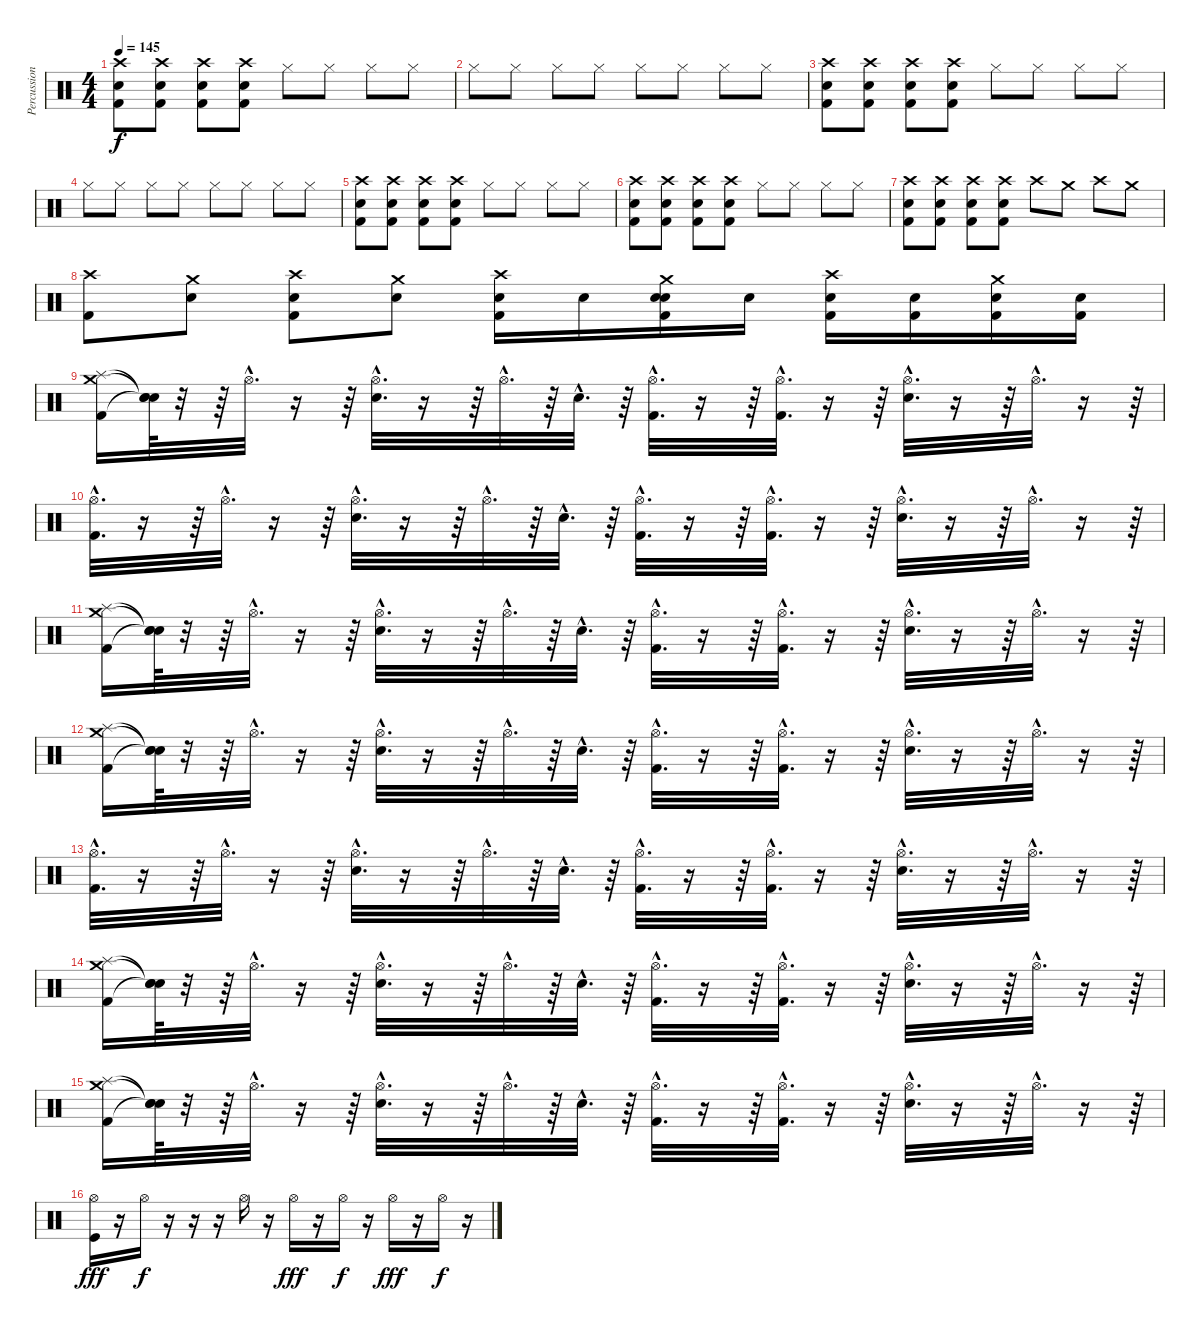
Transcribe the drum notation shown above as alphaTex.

\track ("Percussions" "Percussion") {instrument percussion}
\staff {score}
\articulation defaults
\ts (4 4)
\tempo 145
\clef neutral
\ks c
("Crash high (hit)" "Snare (hit) 2" "Kick (hit) 2").8{dy f} ("Crash high (hit)" "Snare (hit) 2" "Kick (hit) 2").8 ("Crash high (hit)" "Snare (hit) 2" "Kick (hit) 2").8 ("Crash high (hit)" "Snare (hit) 2" "Kick (hit) 2").8 "Hi-Hat (closed)".8 "Hi-Hat (closed)".8 "Hi-Hat (closed)".8 "Hi-Hat (closed)".8 |
"Hi-Hat (closed)".8 "Hi-Hat (closed)".8 "Hi-Hat (closed)".8 "Hi-Hat (closed)".8 "Hi-Hat (closed)".8 "Hi-Hat (closed)".8 "Hi-Hat (closed)".8 "Hi-Hat (closed)".8 |
("Crash high (hit)" "Snare (hit) 2" "Kick (hit) 2").8 ("Crash high (hit)" "Snare (hit) 2" "Kick (hit) 2").8 ("Crash high (hit)" "Snare (hit) 2" "Kick (hit) 2").8 ("Crash high (hit)" "Snare (hit) 2" "Kick (hit) 2").8 "Hi-Hat (closed)".8 "Hi-Hat (closed)".8 "Hi-Hat (closed)".8 "Hi-Hat (closed)".8 |
"Hi-Hat (closed)".8 "Hi-Hat (closed)".8 "Hi-Hat (closed)".8 "Hi-Hat (closed)".8 "Hi-Hat (closed)".8 "Hi-Hat (closed)".8 "Hi-Hat (closed)".8 "Hi-Hat (closed)".8 |
("Crash high (hit)" "Snare (hit) 2" "Kick (hit) 2").8 ("Crash high (hit)" "Snare (hit) 2" "Kick (hit) 2").8 ("Crash high (hit)" "Snare (hit) 2" "Kick (hit) 2").8 ("Crash high (hit)" "Snare (hit) 2" "Kick (hit) 2").8 "Hi-Hat (closed)".8 "Hi-Hat (closed)".8 "Hi-Hat (closed)".8 "Hi-Hat (closed)".8 |
("Crash high (hit)" "Snare (hit) 2" "Kick (hit) 2").8 ("Crash high (hit)" "Snare (hit) 2" "Kick (hit) 2").8 ("Crash high (hit)" "Snare (hit) 2" "Kick (hit) 2").8 ("Crash high (hit)" "Snare (hit) 2" "Kick (hit) 2").8 "Hi-Hat (closed)".8 "Hi-Hat (closed)".8 "Hi-Hat (closed)".8 "Hi-Hat (closed)".8 |
("Crash high (hit)" "Snare (hit) 2" "Kick (hit) 2").8 ("Crash high (hit)" "Snare (hit) 2" "Kick (hit) 2").8 ("Crash high (hit)" "Snare (hit) 2" "Kick (hit) 2").8 ("Crash high (hit)" "Snare (hit) 2" "Kick (hit) 2").8 "Crash high (hit)".8 "Crash medium (hit)".8 "Crash high (hit)".8 "Crash medium (hit)".8 |
("Crash high (hit)" "Kick (hit) 2").8 ("Crash medium (hit)" "Snare (hit) 2").8 ("Crash high (hit)" "Electric Snare (hit)" "Kick (hit) 2").8 ("Crash medium (hit)" "Snare (hit) 2").8 ("Crash high (hit)" "Electric Snare (hit)" "Kick (hit) 2").16 "Electric Snare (hit)".16 ("Crash medium (hit)" "Snare (hit) 2" "Electric Snare (hit)" "Kick (hit) 2").16 "Electric Snare (hit)".16 ("Crash high (hit)" "Electric Snare (hit)" "Kick (hit) 2").16 ("Electric Snare (hit)" "Kick (hit) 2").16 ("Crash medium (hit)" "Electric Snare (hit)" "Kick (hit) 2").16 ("Electric Snare (hit)" "Kick (hit) 2").16 |
("Crash medium (hit)" "Splash (hit)" "Kick (hit) 2").16 ("Snare (hit)"{t} "Snare (hit)"{t} "Snare (hit)"{t}).64 r.32 r.64 "Hi-Hat (open)"{hac}.32{d} r.16 r.64 ("Hi-Hat (open)"{hac} "Electric Snare (hit)"{hac}).32{d} r.16 r.64 "Hi-Hat (open)"{hac}.32{d} r.64 "Electric Snare (hit)"{hac}.32{d} r.64 ("Hi-Hat (open)"{hac} "Kick (hit) 2"{hac}).32{d} r.16 r.64 ("Hi-Hat (open)"{hac} "Kick (hit) 2"{hac}).32{d} r.16 r.64 ("Hi-Hat (open)"{hac} "Electric Snare (hit)"{hac}).32{d} r.16 r.64 "Hi-Hat (open)"{hac}.32{d} r.16 r.64 |
("Hi-Hat (open)"{hac} "Kick (hit) 2"{hac}).32{d} r.16 r.64 "Hi-Hat (open)"{hac}.32{d} r.16 r.64 ("Hi-Hat (open)"{hac} "Electric Snare (hit)"{hac}).32{d} r.16 r.64 "Hi-Hat (open)"{hac}.32{d} r.64 "Electric Snare (hit)"{hac}.32{d} r.64 ("Hi-Hat (open)"{hac} "Kick (hit) 2"{hac}).32{d} r.16 r.64 ("Hi-Hat (open)"{hac} "Kick (hit) 2"{hac}).32{d} r.16 r.64 ("Hi-Hat (open)"{hac} "Electric Snare (hit)"{hac}).32{d} r.16 r.64 "Hi-Hat (open)"{hac}.32{d} r.16 r.64 |
("Crash medium (hit)" "Splash (hit)" "Kick (hit) 2").16 ("Snare (hit)"{t} "Snare (hit)"{t} "Snare (hit)"{t}).64 r.32 r.64 "Hi-Hat (open)"{hac}.32{d} r.16 r.64 ("Hi-Hat (open)"{hac} "Electric Snare (hit)"{hac}).32{d} r.16 r.64 "Hi-Hat (open)"{hac}.32{d} r.64 "Electric Snare (hit)"{hac}.32{d} r.64 ("Hi-Hat (open)"{hac} "Kick (hit) 2"{hac}).32{d} r.16 r.64 ("Hi-Hat (open)"{hac} "Kick (hit) 2"{hac}).32{d} r.16 r.64 ("Hi-Hat (open)"{hac} "Electric Snare (hit)"{hac}).32{d} r.16 r.64 "Hi-Hat (open)"{hac}.32{d} r.16 r.64 |
("Crash medium (hit)" "Splash (hit)" "Kick (hit) 2").16 ("Snare (hit)"{t} "Snare (hit)"{t} "Snare (hit)"{t}).64 r.32 r.64 "Hi-Hat (open)"{hac}.32{d} r.16 r.64 ("Hi-Hat (open)"{hac} "Electric Snare (hit)"{hac}).32{d} r.16 r.64 "Hi-Hat (open)"{hac}.32{d} r.64 "Electric Snare (hit)"{hac}.32{d} r.64 ("Hi-Hat (open)"{hac} "Kick (hit) 2"{hac}).32{d} r.16 r.64 ("Hi-Hat (open)"{hac} "Kick (hit) 2"{hac}).32{d} r.16 r.64 ("Hi-Hat (open)"{hac} "Electric Snare (hit)"{hac}).32{d} r.16 r.64 "Hi-Hat (open)"{hac}.32{d} r.16 r.64 |
("Hi-Hat (open)"{hac} "Kick (hit) 2"{hac}).32{d} r.16 r.64 "Hi-Hat (open)"{hac}.32{d} r.16 r.64 ("Hi-Hat (open)"{hac} "Electric Snare (hit)"{hac}).32{d} r.16 r.64 "Hi-Hat (open)"{hac}.32{d} r.64 "Electric Snare (hit)"{hac}.32{d} r.64 ("Hi-Hat (open)"{hac} "Kick (hit) 2"{hac}).32{d} r.16 r.64 ("Hi-Hat (open)"{hac} "Kick (hit) 2"{hac}).32{d} r.16 r.64 ("Hi-Hat (open)"{hac} "Electric Snare (hit)"{hac}).32{d} r.16 r.64 "Hi-Hat (open)"{hac}.32{d} r.16 r.64 |
("Crash medium (hit)" "Splash (hit)" "Kick (hit) 2").16 ("Snare (hit)"{t} "Snare (hit)"{t} "Snare (hit)"{t}).64 r.32 r.64 "Hi-Hat (open)"{hac}.32{d} r.16 r.64 ("Hi-Hat (open)"{hac} "Electric Snare (hit)"{hac}).32{d} r.16 r.64 "Hi-Hat (open)"{hac}.32{d} r.64 "Electric Snare (hit)"{hac}.32{d} r.64 ("Hi-Hat (open)"{hac} "Kick (hit) 2"{hac}).32{d} r.16 r.64 ("Hi-Hat (open)"{hac} "Kick (hit) 2"{hac}).32{d} r.16 r.64 ("Hi-Hat (open)"{hac} "Electric Snare (hit)"{hac}).32{d} r.16 r.64 "Hi-Hat (open)"{hac}.32{d} r.16 r.64 |
("Crash medium (hit)" "Splash (hit)" "Kick (hit) 2").16 ("Snare (hit)"{t} "Snare (hit)"{t} "Snare (hit)"{t}).64 r.32 r.64 "Hi-Hat (open)"{hac}.32{d} r.16 r.64 ("Hi-Hat (open)"{hac} "Electric Snare (hit)"{hac}).32{d} r.16 r.64 "Hi-Hat (open)"{hac}.32{d} r.64 "Electric Snare (hit)"{hac}.32{d} r.64 ("Hi-Hat (open)"{hac} "Kick (hit) 2"{hac}).32{d} r.16 r.64 ("Hi-Hat (open)"{hac} "Kick (hit) 2"{hac}).32{d} r.16 r.64 ("Hi-Hat (open)"{hac} "Electric Snare (hit)"{hac}).32{d} r.16 r.64 "Hi-Hat (open)"{hac}.32{d} r.16 r.64 |
("Kick (hit)" "Hi-Hat (open)").16{dy fff} r.16 "Hi-Hat (open)".16{dy f} r.16 r.16 r.16 "Hi-Hat (open)".16 r.16 "Hi-Hat (open)".16{dy fff} r.16 "Hi-Hat (open)".16{dy f} r.16 "Hi-Hat (open)".16{dy fff} r.16 "Hi-Hat (open)".16{dy f} r.16
